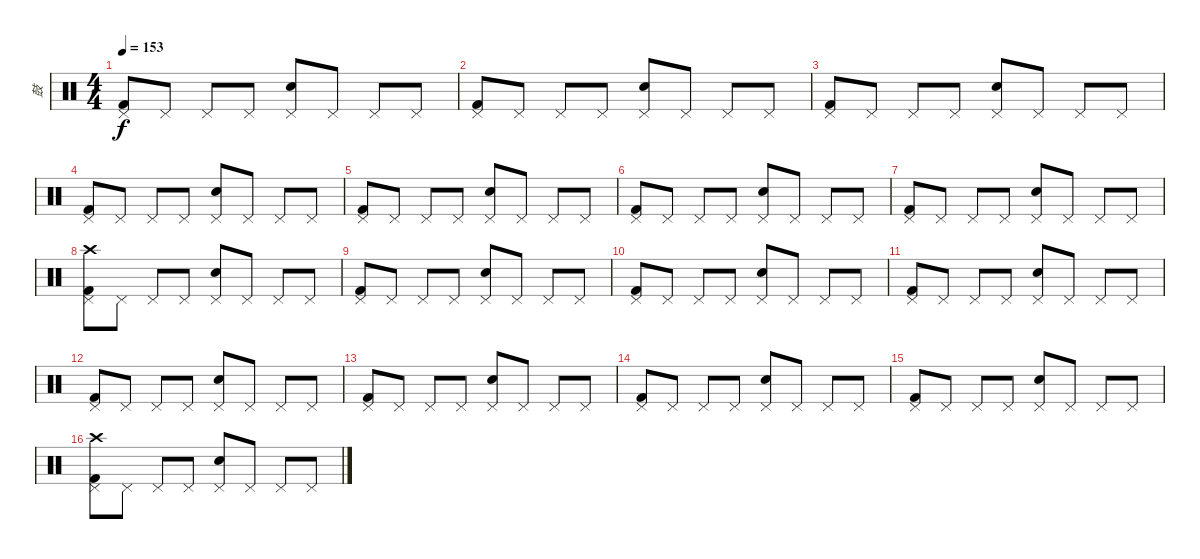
\track ("鼓" "鼓") {instrument percussion}
\staff {score}
\articulation defaults
\ts (4 4)
\tempo 153
\clef neutral
\ks c
("Pedal Hi-Hat (hit)" "Kick (hit) 2").8{dy f} "Pedal Hi-Hat (hit)".8 "Pedal Hi-Hat (hit)".8 "Pedal Hi-Hat (hit)".8 ("Pedal Hi-Hat (hit)" "Electric Snare (hit)").8 "Pedal Hi-Hat (hit)".8 "Pedal Hi-Hat (hit)".8 "Pedal Hi-Hat (hit)".8 |
("Pedal Hi-Hat (hit)" "Kick (hit) 2").8 "Pedal Hi-Hat (hit)".8 "Pedal Hi-Hat (hit)".8 "Pedal Hi-Hat (hit)".8 ("Pedal Hi-Hat (hit)" "Electric Snare (hit)").8 "Pedal Hi-Hat (hit)".8 "Pedal Hi-Hat (hit)".8 "Pedal Hi-Hat (hit)".8 |
("Pedal Hi-Hat (hit)" "Kick (hit) 2").8 "Pedal Hi-Hat (hit)".8 "Pedal Hi-Hat (hit)".8 "Pedal Hi-Hat (hit)".8 ("Pedal Hi-Hat (hit)" "Electric Snare (hit)").8 "Pedal Hi-Hat (hit)".8 "Pedal Hi-Hat (hit)".8 "Pedal Hi-Hat (hit)".8 |
("Pedal Hi-Hat (hit)" "Kick (hit) 2").8 "Pedal Hi-Hat (hit)".8 "Pedal Hi-Hat (hit)".8 "Pedal Hi-Hat (hit)".8 ("Pedal Hi-Hat (hit)" "Electric Snare (hit)").8 "Pedal Hi-Hat (hit)".8 "Pedal Hi-Hat (hit)".8 "Pedal Hi-Hat (hit)".8 |
("Pedal Hi-Hat (hit)" "Kick (hit) 2").8 "Pedal Hi-Hat (hit)".8 "Pedal Hi-Hat (hit)".8 "Pedal Hi-Hat (hit)".8 ("Pedal Hi-Hat (hit)" "Electric Snare (hit)").8 "Pedal Hi-Hat (hit)".8 "Pedal Hi-Hat (hit)".8 "Pedal Hi-Hat (hit)".8 |
("Pedal Hi-Hat (hit)" "Kick (hit) 2").8 "Pedal Hi-Hat (hit)".8 "Pedal Hi-Hat (hit)".8 "Pedal Hi-Hat (hit)".8 ("Pedal Hi-Hat (hit)" "Electric Snare (hit)").8 "Pedal Hi-Hat (hit)".8 "Pedal Hi-Hat (hit)".8 "Pedal Hi-Hat (hit)".8 |
("Pedal Hi-Hat (hit)" "Kick (hit) 2").8 "Pedal Hi-Hat (hit)".8 "Pedal Hi-Hat (hit)".8 "Pedal Hi-Hat (hit)".8 ("Pedal Hi-Hat (hit)" "Electric Snare (hit)").8 "Pedal Hi-Hat (hit)".8 "Pedal Hi-Hat (hit)".8 "Pedal Hi-Hat (hit)".8 |
("Pedal Hi-Hat (hit)" "Crash high (hit)" "Kick (hit) 2").8 "Pedal Hi-Hat (hit)".8 "Pedal Hi-Hat (hit)".8 "Pedal Hi-Hat (hit)".8 ("Pedal Hi-Hat (hit)" "Electric Snare (hit)").8 "Pedal Hi-Hat (hit)".8 "Pedal Hi-Hat (hit)".8 "Pedal Hi-Hat (hit)".8 |
("Pedal Hi-Hat (hit)" "Kick (hit) 2").8 "Pedal Hi-Hat (hit)".8 "Pedal Hi-Hat (hit)".8 "Pedal Hi-Hat (hit)".8 ("Pedal Hi-Hat (hit)" "Electric Snare (hit)").8 "Pedal Hi-Hat (hit)".8 "Pedal Hi-Hat (hit)".8 "Pedal Hi-Hat (hit)".8 |
("Pedal Hi-Hat (hit)" "Kick (hit) 2").8 "Pedal Hi-Hat (hit)".8 "Pedal Hi-Hat (hit)".8 "Pedal Hi-Hat (hit)".8 ("Pedal Hi-Hat (hit)" "Electric Snare (hit)").8 "Pedal Hi-Hat (hit)".8 "Pedal Hi-Hat (hit)".8 "Pedal Hi-Hat (hit)".8 |
("Pedal Hi-Hat (hit)" "Kick (hit) 2").8 "Pedal Hi-Hat (hit)".8 "Pedal Hi-Hat (hit)".8 "Pedal Hi-Hat (hit)".8 ("Pedal Hi-Hat (hit)" "Electric Snare (hit)").8 "Pedal Hi-Hat (hit)".8 "Pedal Hi-Hat (hit)".8 "Pedal Hi-Hat (hit)".8 |
("Pedal Hi-Hat (hit)" "Kick (hit) 2").8 "Pedal Hi-Hat (hit)".8 "Pedal Hi-Hat (hit)".8 "Pedal Hi-Hat (hit)".8 ("Pedal Hi-Hat (hit)" "Electric Snare (hit)").8 "Pedal Hi-Hat (hit)".8 "Pedal Hi-Hat (hit)".8 "Pedal Hi-Hat (hit)".8 |
("Pedal Hi-Hat (hit)" "Kick (hit) 2").8 "Pedal Hi-Hat (hit)".8 "Pedal Hi-Hat (hit)".8 "Pedal Hi-Hat (hit)".8 ("Pedal Hi-Hat (hit)" "Electric Snare (hit)").8 "Pedal Hi-Hat (hit)".8 "Pedal Hi-Hat (hit)".8 "Pedal Hi-Hat (hit)".8 |
("Pedal Hi-Hat (hit)" "Kick (hit) 2").8 "Pedal Hi-Hat (hit)".8 "Pedal Hi-Hat (hit)".8 "Pedal Hi-Hat (hit)".8 ("Pedal Hi-Hat (hit)" "Electric Snare (hit)").8 "Pedal Hi-Hat (hit)".8 "Pedal Hi-Hat (hit)".8 "Pedal Hi-Hat (hit)".8 |
("Pedal Hi-Hat (hit)" "Kick (hit) 2").8 "Pedal Hi-Hat (hit)".8 "Pedal Hi-Hat (hit)".8 "Pedal Hi-Hat (hit)".8 ("Pedal Hi-Hat (hit)" "Electric Snare (hit)").8 "Pedal Hi-Hat (hit)".8 "Pedal Hi-Hat (hit)".8 "Pedal Hi-Hat (hit)".8 |
("Pedal Hi-Hat (hit)" "Crash high (hit)" "Kick (hit) 2").8 "Pedal Hi-Hat (hit)".8 "Pedal Hi-Hat (hit)".8 "Pedal Hi-Hat (hit)".8 ("Pedal Hi-Hat (hit)" "Electric Snare (hit)").8 "Pedal Hi-Hat (hit)".8 "Pedal Hi-Hat (hit)".8 "Pedal Hi-Hat (hit)".8
